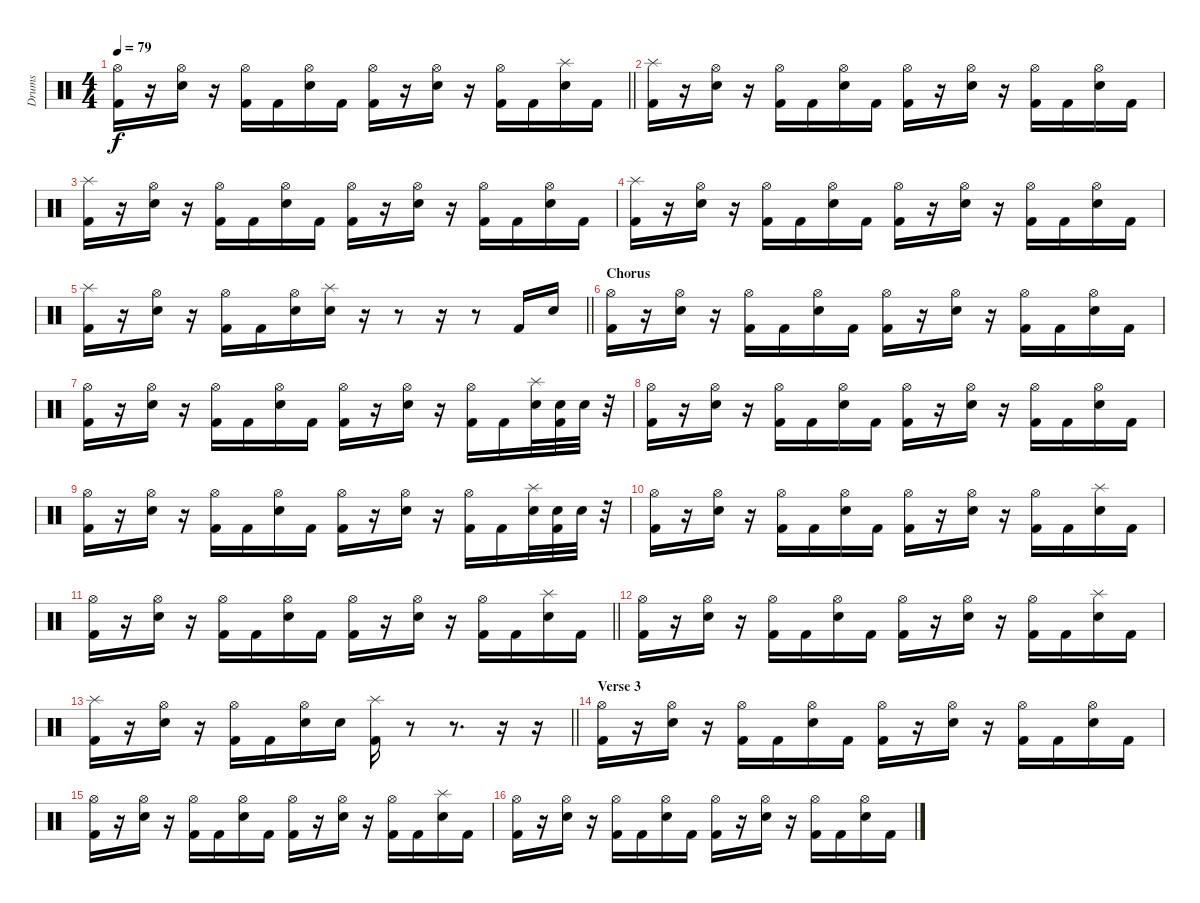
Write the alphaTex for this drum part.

\track ("Drums" "Drums") {instrument percussion}
\staff {score}
\articulation defaults
\ts (4 4)
\tempo 79
\clef neutral
\barLineRight lightlight
\ks c
("Hi-Hat (open)" "Kick (hit) 2").16{dy f} r.16 ("Hi-Hat (open)" "Electric Snare (hit)").16 r.16 ("Hi-Hat (open)" "Kick (hit) 2").16 "Kick (hit) 2".16 ("Hi-Hat (open)" "Electric Snare (hit)").16 "Kick (hit) 2".16 ("Hi-Hat (open)" "Kick (hit) 2").16 r.16 ("Hi-Hat (open)" "Electric Snare (hit)").16 r.16 ("Hi-Hat (open)" "Kick (hit) 2").16 "Kick (hit) 2".16 ("Splash (hit)" "Electric Snare (hit)").16 "Kick (hit) 2".16 |
("Splash (hit)" "Kick (hit) 2").16 r.16 ("Hi-Hat (open)" "Electric Snare (hit)").16 r.16 ("Hi-Hat (open)" "Kick (hit) 2").16 "Kick (hit) 2".16 ("Hi-Hat (open)" "Electric Snare (hit)").16 "Kick (hit) 2".16 ("Hi-Hat (open)" "Kick (hit) 2").16 r.16 ("Hi-Hat (open)" "Electric Snare (hit)").16 r.16 ("Hi-Hat (open)" "Kick (hit) 2").16 "Kick (hit) 2".16 ("Hi-Hat (open)" "Electric Snare (hit)").16 "Kick (hit) 2".16 |
("Splash (hit)" "Kick (hit) 2").16 r.16 ("Hi-Hat (open)" "Electric Snare (hit)").16 r.16 ("Hi-Hat (open)" "Kick (hit) 2").16 "Kick (hit) 2".16 ("Hi-Hat (open)" "Electric Snare (hit)").16 "Kick (hit) 2".16 ("Hi-Hat (open)" "Kick (hit) 2").16 r.16 ("Hi-Hat (open)" "Electric Snare (hit)").16 r.16 ("Hi-Hat (open)" "Kick (hit) 2").16 "Kick (hit) 2".16 ("Hi-Hat (open)" "Electric Snare (hit)").16 "Kick (hit) 2".16 |
("Splash (hit)" "Kick (hit) 2").16 r.16 ("Hi-Hat (open)" "Electric Snare (hit)").16 r.16 ("Hi-Hat (open)" "Kick (hit) 2").16 "Kick (hit) 2".16 ("Hi-Hat (open)" "Electric Snare (hit)").16 "Kick (hit) 2".16 ("Hi-Hat (open)" "Kick (hit) 2").16 r.16 ("Hi-Hat (open)" "Electric Snare (hit)").16 r.16 ("Hi-Hat (open)" "Kick (hit) 2").16 "Kick (hit) 2".16 ("Hi-Hat (open)" "Electric Snare (hit)").16 "Kick (hit) 2".16 |
\barLineRight lightlight
("Splash (hit)" "Kick (hit) 2").16 r.16 ("Hi-Hat (open)" "Electric Snare (hit)").16 r.16 ("Hi-Hat (open)" "Kick (hit) 2").16 "Kick (hit) 2".16 ("Hi-Hat (open)" "Electric Snare (hit)").16 ("Splash (hit)" "Electric Snare (hit)").16 r.16 r.8 r.16 r.8 "Kick (hit) 2".16 "Electric Snare (hit)".16 |
\section ("" "Chorus")
("Hi-Hat (open)" "Kick (hit) 2").16 r.16 ("Hi-Hat (open)" "Electric Snare (hit)").16 r.16 ("Hi-Hat (open)" "Kick (hit) 2").16 "Kick (hit) 2".16 ("Hi-Hat (open)" "Electric Snare (hit)").16 "Kick (hit) 2".16 ("Hi-Hat (open)" "Kick (hit) 2").16 r.16 ("Hi-Hat (open)" "Electric Snare (hit)").16 r.16 ("Hi-Hat (open)" "Kick (hit) 2").16 "Kick (hit) 2".16 ("Hi-Hat (open)" "Electric Snare (hit)").16 "Kick (hit) 2".16 |
("Hi-Hat (open)" "Kick (hit) 2").16 r.16 ("Hi-Hat (open)" "Electric Snare (hit)").16 r.16 ("Hi-Hat (open)" "Kick (hit) 2").16 "Kick (hit) 2".16 ("Hi-Hat (open)" "Electric Snare (hit)").16 "Kick (hit) 2".16 ("Hi-Hat (open)" "Kick (hit) 2").16 r.16 ("Hi-Hat (open)" "Electric Snare (hit)").16 r.16 ("Hi-Hat (open)" "Kick (hit) 2").16 "Kick (hit) 2".16 ("Splash (hit)" "Electric Snare (hit)").32 ("Electric Snare (hit)" "Kick (hit) 2").32 "Electric Snare (hit)".32 r.32 |
("Hi-Hat (open)" "Kick (hit) 2").16 r.16 ("Hi-Hat (open)" "Electric Snare (hit)").16 r.16 ("Hi-Hat (open)" "Kick (hit) 2").16 "Kick (hit) 2".16 ("Hi-Hat (open)" "Electric Snare (hit)").16 "Kick (hit) 2".16 ("Hi-Hat (open)" "Kick (hit) 2").16 r.16 ("Hi-Hat (open)" "Electric Snare (hit)").16 r.16 ("Hi-Hat (open)" "Kick (hit) 2").16 "Kick (hit) 2".16 ("Hi-Hat (open)" "Electric Snare (hit)").16 "Kick (hit) 2".16 |
("Hi-Hat (open)" "Kick (hit) 2").16 r.16 ("Hi-Hat (open)" "Electric Snare (hit)").16 r.16 ("Hi-Hat (open)" "Kick (hit) 2").16 "Kick (hit) 2".16 ("Hi-Hat (open)" "Electric Snare (hit)").16 "Kick (hit) 2".16 ("Hi-Hat (open)" "Kick (hit) 2").16 r.16 ("Hi-Hat (open)" "Electric Snare (hit)").16 r.16 ("Hi-Hat (open)" "Kick (hit) 2").16 "Kick (hit) 2".16 ("Splash (hit)" "Electric Snare (hit)").32 ("Electric Snare (hit)" "Kick (hit) 2").32 "Electric Snare (hit)".32 r.32 |
("Hi-Hat (open)" "Kick (hit) 2").16 r.16 ("Hi-Hat (open)" "Electric Snare (hit)").16 r.16 ("Hi-Hat (open)" "Kick (hit) 2").16 "Kick (hit) 2".16 ("Hi-Hat (open)" "Electric Snare (hit)").16 "Kick (hit) 2".16 ("Hi-Hat (open)" "Kick (hit) 2").16 r.16 ("Hi-Hat (open)" "Electric Snare (hit)").16 r.16 ("Hi-Hat (open)" "Kick (hit) 2").16 "Kick (hit) 2".16 ("Splash (hit)" "Electric Snare (hit)").16 "Kick (hit) 2".16 |
\barLineRight lightlight
("Hi-Hat (open)" "Kick (hit) 2").16 r.16 ("Hi-Hat (open)" "Electric Snare (hit)").16 r.16 ("Hi-Hat (open)" "Kick (hit) 2").16 "Kick (hit) 2".16 ("Hi-Hat (open)" "Electric Snare (hit)").16 "Kick (hit) 2".16 ("Hi-Hat (open)" "Kick (hit) 2").16 r.16 ("Hi-Hat (open)" "Electric Snare (hit)").16 r.16 ("Hi-Hat (open)" "Kick (hit) 2").16 "Kick (hit) 2".16 ("Splash (hit)" "Electric Snare (hit)").16 "Kick (hit) 2".16 |
("Hi-Hat (open)" "Kick (hit) 2").16 r.16 ("Hi-Hat (open)" "Electric Snare (hit)").16 r.16 ("Hi-Hat (open)" "Kick (hit) 2").16 "Kick (hit) 2".16 ("Hi-Hat (open)" "Electric Snare (hit)").16 "Kick (hit) 2".16 ("Hi-Hat (open)" "Kick (hit) 2").16 r.16 ("Hi-Hat (open)" "Electric Snare (hit)").16 r.16 ("Hi-Hat (open)" "Kick (hit) 2").16 "Kick (hit) 2".16 ("Splash (hit)" "Electric Snare (hit)").16 "Kick (hit) 2".16 |
\barLineRight lightlight
("Splash (hit)" "Kick (hit) 2").16 r.16 ("Hi-Hat (open)" "Electric Snare (hit)").16 r.16 ("Hi-Hat (open)" "Kick (hit) 2").16 "Kick (hit) 2".16 ("Hi-Hat (open)" "Electric Snare (hit)").16 "Electric Snare (hit)".16 ("Splash (hit)" "Kick (hit) 2").16 r.8 r.8{d} r.16 r.16 |
\section ("" "Verse 3")
("Hi-Hat (open)" "Kick (hit) 2").16 r.16 ("Hi-Hat (open)" "Electric Snare (hit)").16 r.16 ("Hi-Hat (open)" "Kick (hit) 2").16 "Kick (hit) 2".16 ("Hi-Hat (open)" "Electric Snare (hit)").16 "Kick (hit) 2".16 ("Hi-Hat (open)" "Kick (hit) 2").16 r.16 ("Hi-Hat (open)" "Electric Snare (hit)").16 r.16 ("Hi-Hat (open)" "Kick (hit) 2").16 "Kick (hit) 2".16 ("Hi-Hat (open)" "Electric Snare (hit)").16 "Kick (hit) 2".16 |
("Hi-Hat (open)" "Kick (hit) 2").16 r.16 ("Hi-Hat (open)" "Electric Snare (hit)").16 r.16 ("Hi-Hat (open)" "Kick (hit) 2").16 "Kick (hit) 2".16 ("Hi-Hat (open)" "Electric Snare (hit)").16 "Kick (hit) 2".16 ("Hi-Hat (open)" "Kick (hit) 2").16 r.16 ("Hi-Hat (open)" "Electric Snare (hit)").16 r.16 ("Hi-Hat (open)" "Kick (hit) 2").16 "Kick (hit) 2".16 ("Splash (hit)" "Electric Snare (hit)").16 "Kick (hit) 2".16 |
("Hi-Hat (open)" "Kick (hit) 2").16 r.16 ("Hi-Hat (open)" "Electric Snare (hit)").16 r.16 ("Hi-Hat (open)" "Kick (hit) 2").16 "Kick (hit) 2".16 ("Hi-Hat (open)" "Electric Snare (hit)").16 "Kick (hit) 2".16 ("Hi-Hat (open)" "Kick (hit) 2").16 r.16 ("Hi-Hat (open)" "Electric Snare (hit)").16 r.16 ("Hi-Hat (open)" "Kick (hit) 2").16 "Kick (hit) 2".16 ("Hi-Hat (open)" "Electric Snare (hit)").16 "Kick (hit) 2".16
